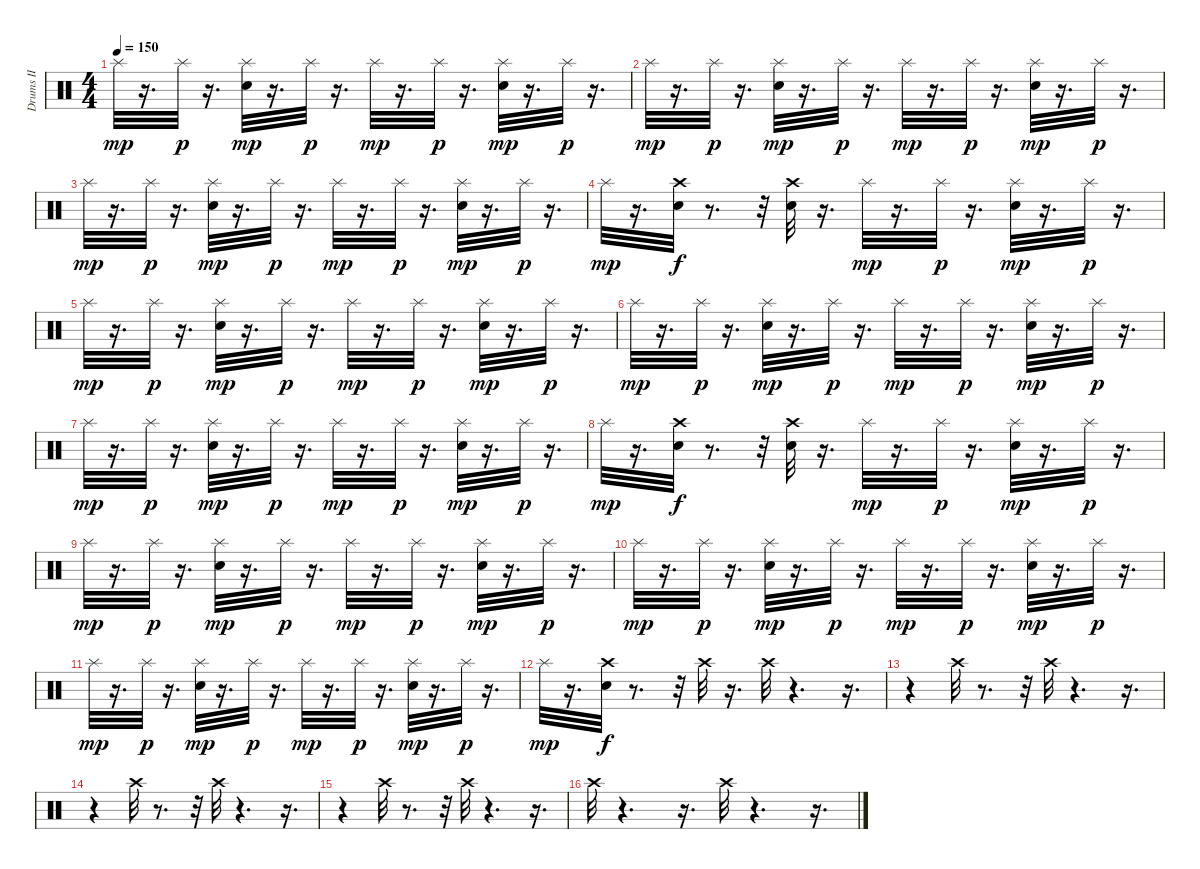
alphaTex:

\track ("Drums II" "Drums II") {instrument percussion}
\staff {score}
\articulation defaults
\ts (4 4)
\tempo 150
\clef neutral
\ks c "Splash (hit)".32{dy mp}
r.16{d} "Splash (hit)".32{dy p} r.16{d} ("Snare (hit) 2" "Splash (hit)").32{dy mp} r.16{d} "Splash (hit)".32{dy p} r.16{d} "Splash (hit)".32{dy mp} r.16{d} "Splash (hit)".32{dy p} r.16{d} ("Snare (hit) 2" "Splash (hit)").32{dy mp} r.16{d} "Splash (hit)".32{dy p} r.16{d} |
"Splash (hit)".32{dy mp} r.16{d} "Splash (hit)".32{dy p} r.16{d} ("Snare (hit) 2" "Splash (hit)").32{dy mp} r.16{d} "Splash (hit)".32{dy p} r.16{d} "Splash (hit)".32{dy mp} r.16{d} "Splash (hit)".32{dy p} r.16{d} ("Snare (hit) 2" "Splash (hit)").32{dy mp} r.16{d} "Splash (hit)".32{dy p} r.16{d} |
"Splash (hit)".32{dy mp} r.16{d} "Splash (hit)".32{dy p} r.16{d} ("Snare (hit) 2" "Splash (hit)").32{dy mp} r.16{d} "Splash (hit)".32{dy p} r.16{d} "Splash (hit)".32{dy mp} r.16{d} "Splash (hit)".32{dy p} r.16{d} ("Snare (hit) 2" "Splash (hit)").32{dy mp} r.16{d} "Splash (hit)".32{dy p} r.16{d} |
"Splash (hit)".32{dy mp} r.16{d} ("Crash high (hit)" "Snare (hit) 2").32{dy f} r.8{d} r.32 ("Crash high (hit)" "Snare (hit) 2").32 r.16{d} "Splash (hit)".32{dy mp} r.16{d} "Splash (hit)".32{dy p} r.16{d} ("Snare (hit) 2" "Splash (hit)").32{dy mp} r.16{d} "Splash (hit)".32{dy p} r.16{d} |
"Splash (hit)".32{dy mp} r.16{d} "Splash (hit)".32{dy p} r.16{d} ("Snare (hit) 2" "Splash (hit)").32{dy mp} r.16{d} "Splash (hit)".32{dy p} r.16{d} "Splash (hit)".32{dy mp} r.16{d} "Splash (hit)".32{dy p} r.16{d} ("Snare (hit) 2" "Splash (hit)").32{dy mp} r.16{d} "Splash (hit)".32{dy p} r.16{d} |
"Splash (hit)".32{dy mp} r.16{d} "Splash (hit)".32{dy p} r.16{d} ("Snare (hit) 2" "Splash (hit)").32{dy mp} r.16{d} "Splash (hit)".32{dy p} r.16{d} "Splash (hit)".32{dy mp} r.16{d} "Splash (hit)".32{dy p} r.16{d} ("Snare (hit) 2" "Splash (hit)").32{dy mp} r.16{d} "Splash (hit)".32{dy p} r.16{d} |
"Splash (hit)".32{dy mp} r.16{d} "Splash (hit)".32{dy p} r.16{d} ("Snare (hit) 2" "Splash (hit)").32{dy mp} r.16{d} "Splash (hit)".32{dy p} r.16{d} "Splash (hit)".32{dy mp} r.16{d} "Splash (hit)".32{dy p} r.16{d} ("Snare (hit) 2" "Splash (hit)").32{dy mp} r.16{d} "Splash (hit)".32{dy p} r.16{d} |
"Splash (hit)".32{dy mp} r.16{d} ("Crash high (hit)" "Snare (hit) 2").32{dy f} r.8{d} r.32 ("Crash high (hit)" "Snare (hit) 2").32 r.16{d} "Splash (hit)".32{dy mp} r.16{d} "Splash (hit)".32{dy p} r.16{d} ("Snare (hit) 2" "Splash (hit)").32{dy mp} r.16{d} "Splash (hit)".32{dy p} r.16{d} |
"Splash (hit)".32{dy mp} r.16{d} "Splash (hit)".32{dy p} r.16{d} ("Snare (hit) 2" "Splash (hit)").32{dy mp} r.16{d} "Splash (hit)".32{dy p} r.16{d} "Splash (hit)".32{dy mp} r.16{d} "Splash (hit)".32{dy p} r.16{d} ("Snare (hit) 2" "Splash (hit)").32{dy mp} r.16{d} "Splash (hit)".32{dy p} r.16{d} |
"Splash (hit)".32{dy mp} r.16{d} "Splash (hit)".32{dy p} r.16{d} ("Snare (hit) 2" "Splash (hit)").32{dy mp} r.16{d} "Splash (hit)".32{dy p} r.16{d} "Splash (hit)".32{dy mp} r.16{d} "Splash (hit)".32{dy p} r.16{d} ("Snare (hit) 2" "Splash (hit)").32{dy mp} r.16{d} "Splash (hit)".32{dy p} r.16{d} |
"Splash (hit)".32{dy mp} r.16{d} "Splash (hit)".32{dy p} r.16{d} ("Snare (hit) 2" "Splash (hit)").32{dy mp} r.16{d} "Splash (hit)".32{dy p} r.16{d} "Splash (hit)".32{dy mp} r.16{d} "Splash (hit)".32{dy p} r.16{d} ("Snare (hit) 2" "Splash (hit)").32{dy mp} r.16{d} "Splash (hit)".32{dy p} r.16{d} |
"Splash (hit)".32{dy mp} r.16{d} ("Crash high (hit)" "Snare (hit) 2").32{dy f} r.8{d} r.32 "Crash high (hit)".32 r.16{d} "Crash high (hit)".32 r.4{d} r.16{d} |
r.4 "Crash high (hit)".32 r.8{d} r.32 "Crash high (hit)".32 r.4{d} r.16{d} |
r.4 "Crash high (hit)".32 r.8{d} r.32 "Crash high (hit)".32 r.4{d} r.16{d} |
r.4 "Crash high (hit)".32 r.8{d} r.32 "Crash high (hit)".32 r.4{d} r.16{d} |
"Crash high (hit)".32 r.4{d} r.16{d} "Crash high (hit)".32 r.4{d} r.16{d}
